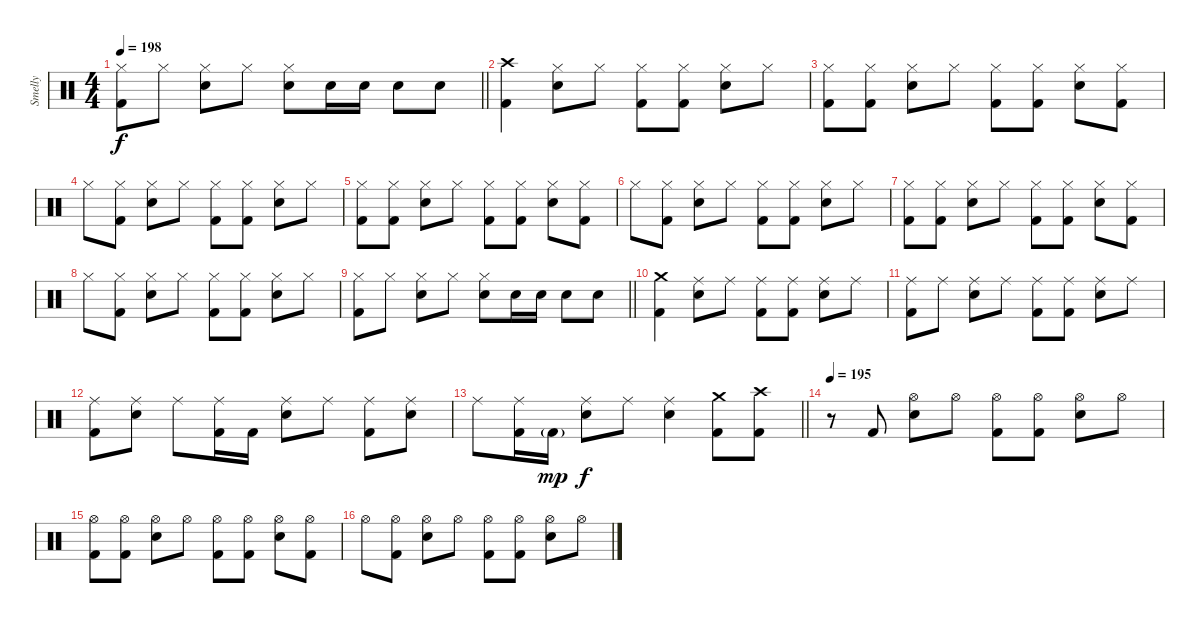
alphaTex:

\track ("Smelly" "Smelly") {instrument percussion}
\staff {score}
\articulation defaults
\ts (4 4)
\tempo 198
\clef neutral
\barLineRight lightlight
\ks c
("Hi-Hat (closed)" "Kick (hit) 2").8{dy f} "Hi-Hat (closed)".8 ("Hi-Hat (closed)" "Electric Snare (hit)").8 "Hi-Hat (closed)".8 ("Hi-Hat (closed)" "Electric Snare (hit)").8 "Electric Snare (hit)".16 "Electric Snare (hit)".16 "Electric Snare (hit)".8 "Electric Snare (hit)".8 |
("Crash high (hit)" "Kick (hit) 2").4 ("Hi-Hat (closed)" "Electric Snare (hit)").8 "Hi-Hat (closed)".8 ("Hi-Hat (closed)" "Kick (hit) 2").8 ("Hi-Hat (closed)" "Kick (hit) 2").8 ("Hi-Hat (closed)" "Electric Snare (hit)").8 "Hi-Hat (closed)".8 |
("Hi-Hat (closed)" "Kick (hit) 2").8 ("Hi-Hat (closed)" "Kick (hit) 2").8 ("Hi-Hat (closed)" "Electric Snare (hit)").8 "Hi-Hat (closed)".8 ("Hi-Hat (closed)" "Kick (hit) 2").8 ("Hi-Hat (closed)" "Kick (hit) 2").8 ("Hi-Hat (closed)" "Electric Snare (hit)").8 ("Hi-Hat (closed)" "Kick (hit) 2").8 |
"Hi-Hat (closed)".8 ("Hi-Hat (closed)" "Kick (hit) 2").8 ("Hi-Hat (closed)" "Electric Snare (hit)").8 "Hi-Hat (closed)".8 ("Hi-Hat (closed)" "Kick (hit) 2").8 ("Hi-Hat (closed)" "Kick (hit) 2").8 ("Hi-Hat (closed)" "Electric Snare (hit)").8 "Hi-Hat (closed)".8 |
("Hi-Hat (closed)" "Kick (hit) 2").8 ("Hi-Hat (closed)" "Kick (hit) 2").8 ("Hi-Hat (closed)" "Electric Snare (hit)").8 "Hi-Hat (closed)".8 ("Hi-Hat (closed)" "Kick (hit) 2").8 ("Hi-Hat (closed)" "Kick (hit) 2").8 ("Hi-Hat (closed)" "Electric Snare (hit)").8 ("Hi-Hat (closed)" "Kick (hit) 2").8 |
"Hi-Hat (closed)".8 ("Hi-Hat (closed)" "Kick (hit) 2").8 ("Hi-Hat (closed)" "Electric Snare (hit)").8 "Hi-Hat (closed)".8 ("Hi-Hat (closed)" "Kick (hit) 2").8 ("Hi-Hat (closed)" "Kick (hit) 2").8 ("Hi-Hat (closed)" "Electric Snare (hit)").8 "Hi-Hat (closed)".8 |
("Hi-Hat (closed)" "Kick (hit) 2").8 ("Hi-Hat (closed)" "Kick (hit) 2").8 ("Hi-Hat (closed)" "Electric Snare (hit)").8 "Hi-Hat (closed)".8 ("Hi-Hat (closed)" "Kick (hit) 2").8 ("Hi-Hat (closed)" "Kick (hit) 2").8 ("Hi-Hat (closed)" "Electric Snare (hit)").8 ("Hi-Hat (closed)" "Kick (hit) 2").8 |
"Hi-Hat (closed)".8 ("Hi-Hat (closed)" "Kick (hit) 2").8 ("Hi-Hat (closed)" "Electric Snare (hit)").8 "Hi-Hat (closed)".8 ("Hi-Hat (closed)" "Kick (hit) 2").8 ("Hi-Hat (closed)" "Kick (hit) 2").8 ("Hi-Hat (closed)" "Electric Snare (hit)").8 "Hi-Hat (closed)".8 |
\barLineRight lightlight
("Hi-Hat (closed)" "Kick (hit) 2").8 "Hi-Hat (closed)".8 ("Hi-Hat (closed)" "Electric Snare (hit)").8 "Hi-Hat (closed)".8 ("Hi-Hat (closed)" "Electric Snare (hit)").8 "Electric Snare (hit)".16 "Electric Snare (hit)".16 "Electric Snare (hit)".8 "Electric Snare (hit)".8 |
("Crash medium (hit)" "Kick (hit) 2").4 ("Ride (middle)" "Electric Snare (hit)").8 "Ride (middle)".8 ("Ride (middle)" "Kick (hit) 2").8 ("Ride (middle)" "Kick (hit) 2").8 ("Ride (middle)" "Electric Snare (hit)").8 "Ride (middle)".8 |
("Ride (middle)" "Kick (hit) 2").8 "Ride (middle)".8 ("Ride (middle)" "Electric Snare (hit)").8 "Ride (middle)".8 ("Ride (middle)" "Kick (hit) 2").8 ("Ride (middle)" "Kick (hit) 2").8 ("Ride (middle)" "Electric Snare (hit)").8 "Ride (middle)".8 |
("Ride (middle)" "Kick (hit) 2").8 ("Ride (middle)" "Electric Snare (hit)").8 "Ride (middle)".8 ("Ride (middle)" "Kick (hit) 2").16 "Kick (hit) 2".16 ("Ride (middle)" "Electric Snare (hit)").8 "Ride (middle)".8 ("Ride (middle)" "Kick (hit) 2").8 ("Ride (middle)" "Electric Snare (hit)").8 |
\barLineRight lightlight "Ride (middle)".8
("Ride (middle)" "Kick (hit) 2").16 "Kick (hit) 2"{g}.16{dy mp} ("Ride (middle)" "Electric Snare (hit)").8{dy f} "Ride (middle)".8 ("Ride (middle)" "Electric Snare (hit)").4 ("Crash medium (hit)" "Kick (hit) 2").8 ("Crash high (hit)" "Kick (hit) 2").8 |
\section ("" "")
\tempo 195
r.8 "Kick (hit) 2".8 ("Hi-Hat (open)" "Electric Snare (hit)").8 "Hi-Hat (open)".8 ("Hi-Hat (open)" "Kick (hit) 2").8 ("Hi-Hat (open)" "Kick (hit) 2").8 ("Hi-Hat (open)" "Electric Snare (hit)").8 "Hi-Hat (open)".8 |
("Hi-Hat (open)" "Kick (hit) 2").8 ("Hi-Hat (open)" "Kick (hit) 2").8 ("Hi-Hat (open)" "Electric Snare (hit)").8 "Hi-Hat (open)".8 ("Hi-Hat (open)" "Kick (hit) 2").8 ("Hi-Hat (open)" "Kick (hit) 2").8 ("Hi-Hat (open)" "Electric Snare (hit)").8 ("Hi-Hat (open)" "Kick (hit) 2").8 |
"Hi-Hat (open)".8 ("Hi-Hat (open)" "Kick (hit) 2").8 ("Hi-Hat (open)" "Electric Snare (hit)").8 "Hi-Hat (open)".8 ("Hi-Hat (open)" "Kick (hit) 2").8 ("Hi-Hat (open)" "Kick (hit) 2").8 ("Hi-Hat (open)" "Electric Snare (hit)").8 "Hi-Hat (open)".8
